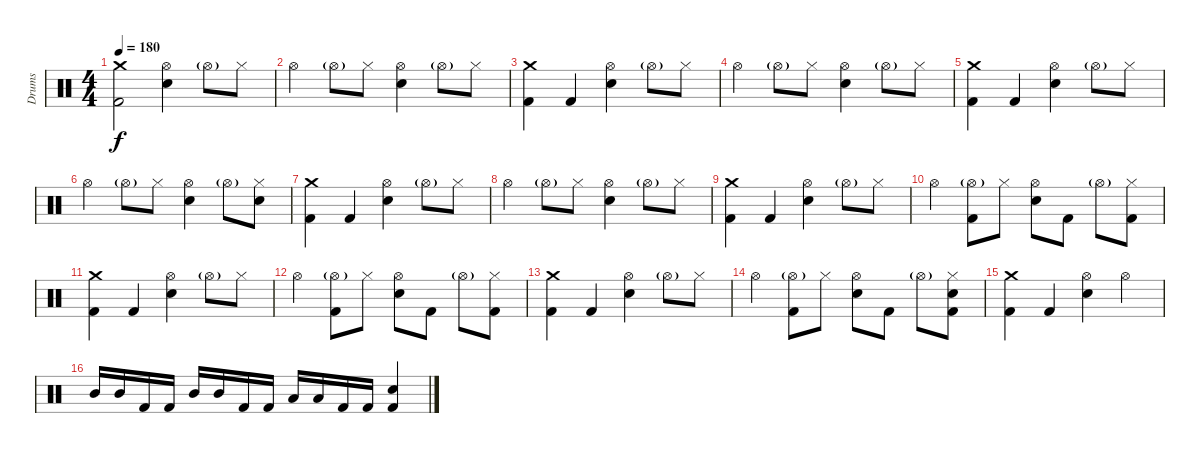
\track ("Drums" "Drums") {instrument percussion}
\staff {score}
\articulation defaults
\ts (4 4)
\tempo 180
\clef neutral
\ks c
("Crash medium (hit)" "Kick (hit) 2").2{dy f} ("Hi-Hat (open)" "Electric Snare (hit)").4 "Hi-Hat (open)"{g}.8 "Hi-Hat (closed)".8 |
"Hi-Hat (open)".4 "Hi-Hat (open)"{g}.8 "Hi-Hat (closed)".8 ("Hi-Hat (open)" "Electric Snare (hit)").4 "Hi-Hat (open)"{g}.8 "Hi-Hat (closed)".8 |
("Crash medium (hit)" "Kick (hit) 2").4 "Kick (hit) 2".4 ("Hi-Hat (open)" "Electric Snare (hit)").4 "Hi-Hat (open)"{g}.8 "Hi-Hat (closed)".8 |
"Hi-Hat (open)".4 "Hi-Hat (open)"{g}.8 "Hi-Hat (closed)".8 ("Hi-Hat (open)" "Electric Snare (hit)").4 "Hi-Hat (open)"{g}.8 "Hi-Hat (closed)".8 |
("Crash medium (hit)" "Kick (hit) 2").4 "Kick (hit) 2".4 ("Hi-Hat (open)" "Electric Snare (hit)").4 "Hi-Hat (open)"{g}.8 "Hi-Hat (closed)".8 |
"Hi-Hat (open)".4 "Hi-Hat (open)"{g}.8 "Hi-Hat (closed)".8 ("Hi-Hat (open)" "Electric Snare (hit)").4 "Hi-Hat (open)"{g}.8 ("Hi-Hat (closed)" "Electric Snare (hit)").8 |
("Crash medium (hit)" "Kick (hit) 2").4 "Kick (hit) 2".4 ("Hi-Hat (open)" "Electric Snare (hit)").4 "Hi-Hat (open)"{g}.8 "Hi-Hat (closed)".8 |
"Hi-Hat (open)".4 "Hi-Hat (open)"{g}.8 "Hi-Hat (closed)".8 ("Hi-Hat (open)" "Electric Snare (hit)").4 "Hi-Hat (open)"{g}.8 "Hi-Hat (closed)".8 |
("Crash medium (hit)" "Kick (hit) 2").4 "Kick (hit) 2".4 ("Hi-Hat (open)" "Electric Snare (hit)").4 "Hi-Hat (open)"{g}.8 "Hi-Hat (closed)".8 |
"Hi-Hat (open)".4 ("Hi-Hat (open)"{g} "Kick (hit) 2").8 "Hi-Hat (closed)".8 ("Hi-Hat (open)" "Electric Snare (hit)").8 "Kick (hit) 2".8 "Hi-Hat (open)"{g}.8 ("Hi-Hat (closed)" "Kick (hit) 2").8 |
("Crash medium (hit)" "Kick (hit) 2").4 "Kick (hit) 2".4 ("Hi-Hat (open)" "Electric Snare (hit)").4 "Hi-Hat (open)"{g}.8 "Hi-Hat (closed)".8 |
"Hi-Hat (open)".4 ("Hi-Hat (open)"{g} "Kick (hit) 2").8 "Hi-Hat (closed)".8 ("Hi-Hat (open)" "Electric Snare (hit)").8 "Kick (hit) 2".8 "Hi-Hat (open)"{g}.8 ("Hi-Hat (closed)" "Kick (hit) 2").8 |
("Crash medium (hit)" "Kick (hit) 2").4 "Kick (hit) 2".4 ("Hi-Hat (open)" "Electric Snare (hit)").4 "Hi-Hat (open)"{g}.8 "Hi-Hat (closed)".8 |
"Hi-Hat (open)".4 ("Hi-Hat (open)"{g} "Kick (hit) 2").8 "Hi-Hat (closed)".8 ("Hi-Hat (open)" "Electric Snare (hit)").8 "Kick (hit) 2".8 "Hi-Hat (open)"{g}.8 ("Hi-Hat (closed)" "Electric Snare (hit)" "Kick (hit) 2").8 |
("Crash medium (hit)" "Kick (hit) 2").4 "Kick (hit) 2".4 ("Hi-Hat (open)" "Electric Snare (hit)").4 "Hi-Hat (open)".4 |
"Mid Tom (hit)".16 "Mid Tom (hit)".16 "Kick (hit) 2".16 "Kick (hit) 2".16 "Mid Tom (hit)".16 "Mid Tom (hit)".16 "Kick (hit) 2".16 "Kick (hit) 2".16 "Low Tom (hit)".16 "Low Tom (hit)".16 "Kick (hit) 2".16 "Kick (hit) 2".16 ("Electric Snare (hit)" "Kick (hit) 2").4
